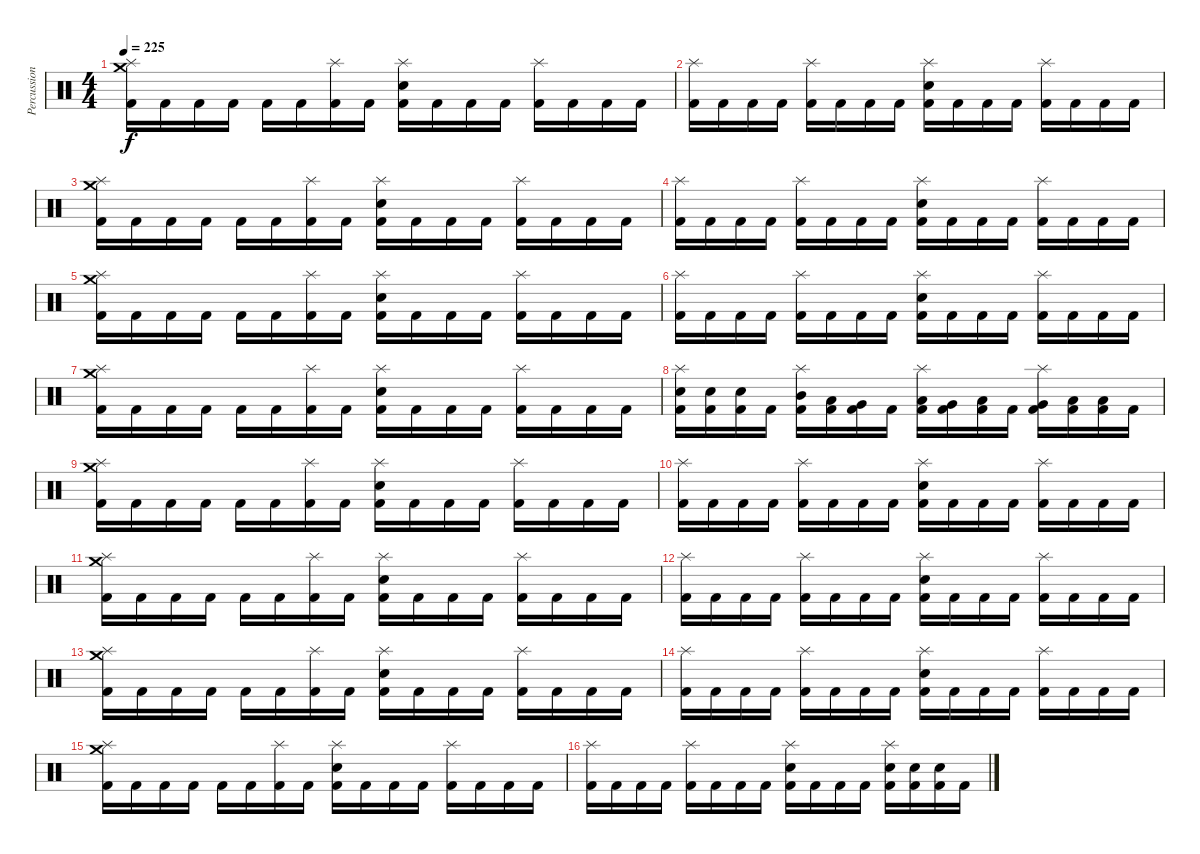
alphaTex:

\track ("Percussion" "Percussion") {instrument percussion}
\staff {score}
\articulation defaults
\ts (4 4)
\tempo 225
\clef neutral
\ks c
("Crash medium (hit)" "Splash (hit)" "Kick (hit) 2").16{dy f} "Kick (hit) 2".16 "Kick (hit) 2".16 "Kick (hit) 2".16 "Kick (hit) 2".16 "Kick (hit) 2".16 ("Splash (hit)" "Kick (hit) 2").16 "Kick (hit) 2".16 ("Splash (hit)" "Snare (hit) 2" "Kick (hit) 2").16 "Kick (hit) 2".16 "Kick (hit) 2".16 "Kick (hit) 2".16 ("Splash (hit)" "Kick (hit) 2").16 "Kick (hit) 2".16 "Kick (hit) 2".16 "Kick (hit) 2".16 |
("Splash (hit)" "Kick (hit) 2").16 "Kick (hit) 2".16 "Kick (hit) 2".16 "Kick (hit) 2".16 ("Splash (hit)" "Kick (hit) 2").16 "Kick (hit) 2".16 "Kick (hit) 2".16 "Kick (hit) 2".16 ("Splash (hit)" "Snare (hit) 2" "Kick (hit) 2").16 "Kick (hit) 2".16 "Kick (hit) 2".16 "Kick (hit) 2".16 ("Splash (hit)" "Kick (hit) 2").16 "Kick (hit) 2".16 "Kick (hit) 2".16 "Kick (hit) 2".16 |
("Crash medium (hit)" "Splash (hit)" "Kick (hit) 2").16 "Kick (hit) 2".16 "Kick (hit) 2".16 "Kick (hit) 2".16 "Kick (hit) 2".16 "Kick (hit) 2".16 ("Splash (hit)" "Kick (hit) 2").16 "Kick (hit) 2".16 ("Splash (hit)" "Snare (hit) 2" "Kick (hit) 2").16 "Kick (hit) 2".16 "Kick (hit) 2".16 "Kick (hit) 2".16 ("Splash (hit)" "Kick (hit) 2").16 "Kick (hit) 2".16 "Kick (hit) 2".16 "Kick (hit) 2".16 |
("Splash (hit)" "Kick (hit) 2").16 "Kick (hit) 2".16 "Kick (hit) 2".16 "Kick (hit) 2".16 ("Splash (hit)" "Kick (hit) 2").16 "Kick (hit) 2".16 "Kick (hit) 2".16 "Kick (hit) 2".16 ("Splash (hit)" "Snare (hit) 2" "Kick (hit) 2").16 "Kick (hit) 2".16 "Kick (hit) 2".16 "Kick (hit) 2".16 ("Splash (hit)" "Kick (hit) 2").16 "Kick (hit) 2".16 "Kick (hit) 2".16 "Kick (hit) 2".16 |
("Crash medium (hit)" "Splash (hit)" "Kick (hit) 2").16 "Kick (hit) 2".16 "Kick (hit) 2".16 "Kick (hit) 2".16 "Kick (hit) 2".16 "Kick (hit) 2".16 ("Splash (hit)" "Kick (hit) 2").16 "Kick (hit) 2".16 ("Splash (hit)" "Snare (hit) 2" "Kick (hit) 2").16 "Kick (hit) 2".16 "Kick (hit) 2".16 "Kick (hit) 2".16 ("Splash (hit)" "Kick (hit) 2").16 "Kick (hit) 2".16 "Kick (hit) 2".16 "Kick (hit) 2".16 |
("Splash (hit)" "Kick (hit) 2").16 "Kick (hit) 2".16 "Kick (hit) 2".16 "Kick (hit) 2".16 ("Splash (hit)" "Kick (hit) 2").16 "Kick (hit) 2".16 "Kick (hit) 2".16 "Kick (hit) 2".16 ("Splash (hit)" "Snare (hit) 2" "Kick (hit) 2").16 "Kick (hit) 2".16 "Kick (hit) 2".16 "Kick (hit) 2".16 ("Splash (hit)" "Kick (hit) 2").16 "Kick (hit) 2".16 "Kick (hit) 2".16 "Kick (hit) 2".16 |
("Crash medium (hit)" "Splash (hit)" "Kick (hit) 2").16 "Kick (hit) 2".16 "Kick (hit) 2".16 "Kick (hit) 2".16 "Kick (hit) 2".16 "Kick (hit) 2".16 ("Splash (hit)" "Kick (hit) 2").16 "Kick (hit) 2".16 ("Splash (hit)" "Snare (hit) 2" "Kick (hit) 2").16 "Kick (hit) 2".16 "Kick (hit) 2".16 "Kick (hit) 2".16 ("Splash (hit)" "Kick (hit) 2").16 "Kick (hit) 2".16 "Kick (hit) 2".16 "Kick (hit) 2".16 |
("Splash (hit)" "Snare (hit) 2" "Kick (hit) 2").16 ("Snare (hit) 2" "Kick (hit) 2").16 ("Snare (hit) 2" "Kick (hit) 2").16 "Kick (hit) 2".16 ("Splash (hit)" "Mid Tom (hit)" "Kick (hit) 2").16 ("Low Tom (hit)" "Kick (hit) 2").16 ("Very Low Tom (hit)" "Kick (hit) 2").16 "Kick (hit) 2".16 ("Splash (hit)" "Low Tom (hit)" "Kick (hit) 2").16 ("Very Low Tom (hit)" "Kick (hit) 2").16 ("Low Floor Tom (hit)" "Kick (hit) 2").16 "Kick (hit) 2".16 ("Splash (hit)" "Very Low Tom (hit)" "Kick (hit) 2").16 ("Low Floor Tom (hit)" "Kick (hit) 2").16 ("Low Floor Tom (hit)" "Kick (hit) 2").16 "Kick (hit) 2".16 |
("Crash medium (hit)" "Splash (hit)" "Kick (hit) 2").16 "Kick (hit) 2".16 "Kick (hit) 2".16 "Kick (hit) 2".16 "Kick (hit) 2".16 "Kick (hit) 2".16 ("Splash (hit)" "Kick (hit) 2").16 "Kick (hit) 2".16 ("Splash (hit)" "Snare (hit) 2" "Kick (hit) 2").16 "Kick (hit) 2".16 "Kick (hit) 2".16 "Kick (hit) 2".16 ("Splash (hit)" "Kick (hit) 2").16 "Kick (hit) 2".16 "Kick (hit) 2".16 "Kick (hit) 2".16 |
("Splash (hit)" "Kick (hit) 2").16 "Kick (hit) 2".16 "Kick (hit) 2".16 "Kick (hit) 2".16 ("Splash (hit)" "Kick (hit) 2").16 "Kick (hit) 2".16 "Kick (hit) 2".16 "Kick (hit) 2".16 ("Splash (hit)" "Snare (hit) 2" "Kick (hit) 2").16 "Kick (hit) 2".16 "Kick (hit) 2".16 "Kick (hit) 2".16 ("Splash (hit)" "Kick (hit) 2").16 "Kick (hit) 2".16 "Kick (hit) 2".16 "Kick (hit) 2".16 |
("Crash medium (hit)" "Splash (hit)" "Kick (hit) 2").16 "Kick (hit) 2".16 "Kick (hit) 2".16 "Kick (hit) 2".16 "Kick (hit) 2".16 "Kick (hit) 2".16 ("Splash (hit)" "Kick (hit) 2").16 "Kick (hit) 2".16 ("Splash (hit)" "Snare (hit) 2" "Kick (hit) 2").16 "Kick (hit) 2".16 "Kick (hit) 2".16 "Kick (hit) 2".16 ("Splash (hit)" "Kick (hit) 2").16 "Kick (hit) 2".16 "Kick (hit) 2".16 "Kick (hit) 2".16 |
("Splash (hit)" "Kick (hit) 2").16 "Kick (hit) 2".16 "Kick (hit) 2".16 "Kick (hit) 2".16 ("Splash (hit)" "Kick (hit) 2").16 "Kick (hit) 2".16 "Kick (hit) 2".16 "Kick (hit) 2".16 ("Splash (hit)" "Snare (hit) 2" "Kick (hit) 2").16 "Kick (hit) 2".16 "Kick (hit) 2".16 "Kick (hit) 2".16 ("Splash (hit)" "Kick (hit) 2").16 "Kick (hit) 2".16 "Kick (hit) 2".16 "Kick (hit) 2".16 |
("Crash medium (hit)" "Splash (hit)" "Kick (hit) 2").16 "Kick (hit) 2".16 "Kick (hit) 2".16 "Kick (hit) 2".16 "Kick (hit) 2".16 "Kick (hit) 2".16 ("Splash (hit)" "Kick (hit) 2").16 "Kick (hit) 2".16 ("Splash (hit)" "Snare (hit) 2" "Kick (hit) 2").16 "Kick (hit) 2".16 "Kick (hit) 2".16 "Kick (hit) 2".16 ("Splash (hit)" "Kick (hit) 2").16 "Kick (hit) 2".16 "Kick (hit) 2".16 "Kick (hit) 2".16 |
("Splash (hit)" "Kick (hit) 2").16 "Kick (hit) 2".16 "Kick (hit) 2".16 "Kick (hit) 2".16 ("Splash (hit)" "Kick (hit) 2").16 "Kick (hit) 2".16 "Kick (hit) 2".16 "Kick (hit) 2".16 ("Splash (hit)" "Snare (hit) 2" "Kick (hit) 2").16 "Kick (hit) 2".16 "Kick (hit) 2".16 "Kick (hit) 2".16 ("Splash (hit)" "Kick (hit) 2").16 "Kick (hit) 2".16 "Kick (hit) 2".16 "Kick (hit) 2".16 |
("Crash medium (hit)" "Splash (hit)" "Kick (hit) 2").16 "Kick (hit) 2".16 "Kick (hit) 2".16 "Kick (hit) 2".16 "Kick (hit) 2".16 "Kick (hit) 2".16 ("Splash (hit)" "Kick (hit) 2").16 "Kick (hit) 2".16 ("Splash (hit)" "Snare (hit) 2" "Kick (hit) 2").16 "Kick (hit) 2".16 "Kick (hit) 2".16 "Kick (hit) 2".16 ("Splash (hit)" "Kick (hit) 2").16 "Kick (hit) 2".16 "Kick (hit) 2".16 "Kick (hit) 2".16 |
("Splash (hit)" "Kick (hit) 2").16 "Kick (hit) 2".16 "Kick (hit) 2".16 "Kick (hit) 2".16 ("Splash (hit)" "Kick (hit) 2").16 "Kick (hit) 2".16 "Kick (hit) 2".16 "Kick (hit) 2".16 ("Splash (hit)" "Snare (hit) 2" "Kick (hit) 2").16 "Kick (hit) 2".16 "Kick (hit) 2".16 "Kick (hit) 2".16 ("Splash (hit)" "Snare (hit) 2" "Kick (hit) 2").16 ("Snare (hit) 2" "Kick (hit) 2").16 ("Snare (hit) 2" "Kick (hit) 2").16 "Kick (hit) 2".16
